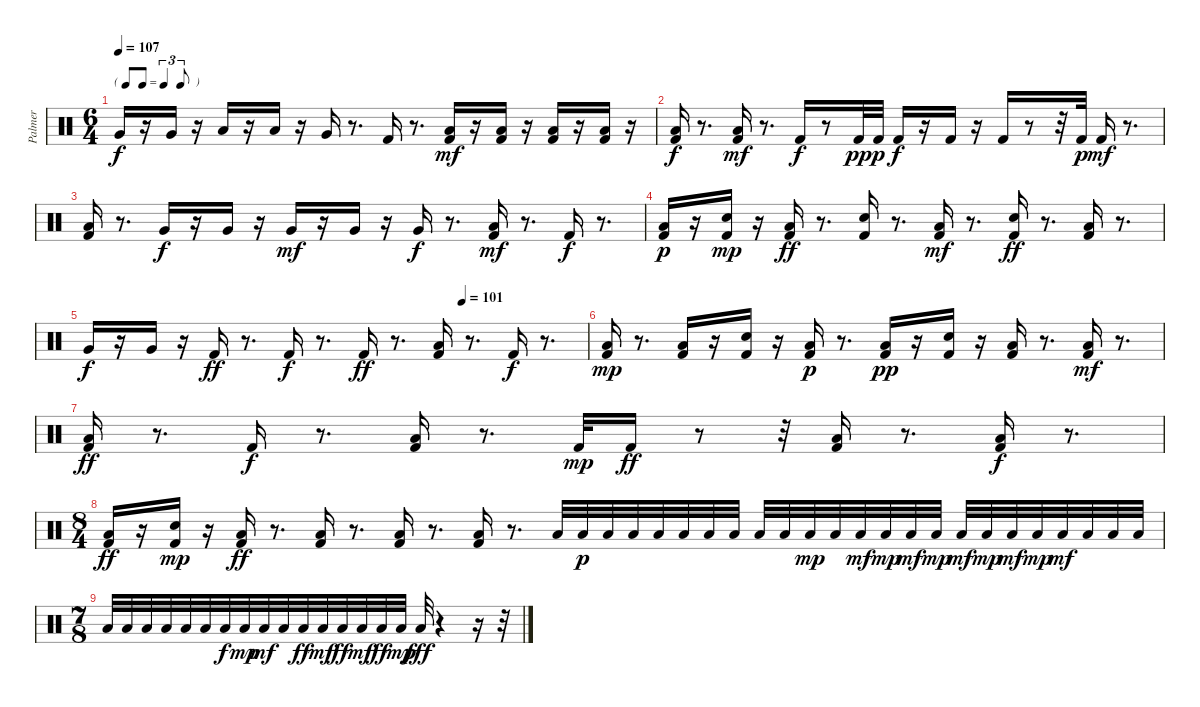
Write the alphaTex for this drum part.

\track ("Palmer" "Palmer") {instrument percussion}
\staff {score}
\articulation defaults
\ts (6 4)
\tf triplet8th
\tempo 107
\clef neutral
\ks c "Very Low Tom (hit)".16{dy f}
r.16 "Very Low Tom (hit)".16 r.16 "Low Floor Tom (hit)".16 r.16 "Low Floor Tom (hit)".16 r.16 "Very Low Tom (hit)".16 r.8{d} "Kick (hit) 2".16 r.8{d} ("Low Floor Tom (hit)" "Kick (hit) 2").16{dy mf} r.16 ("Low Floor Tom (hit)" "Kick (hit) 2").16 r.16 ("Low Floor Tom (hit)" "Kick (hit) 2").16 r.16 ("Low Floor Tom (hit)" "Kick (hit) 2").16 r.16 |
("Low Floor Tom (hit)" "Kick (hit) 2").16{dy f} r.8{d} ("Low Floor Tom (hit)" "Kick (hit) 2").16{dy mf} r.8{d} "Kick (hit) 2".16{dy f} r.8 "Kick (hit) 2".32{dy pp} "Kick (hit) 2".32{dy p} "Kick (hit) 2".16{dy f} r.16 "Kick (hit) 2".16 r.16 "Kick (hit) 2".16 r.8 r.32 "Kick (hit) 2".32{dy p} "Kick (hit) 2".16{dy mf} r.8{d} |
("Low Floor Tom (hit)" "Kick (hit) 2").16 r.8{d} "Very Low Tom (hit)".16{dy f} r.16 "Very Low Tom (hit)".16 r.16 "Very Low Tom (hit)".16{dy mf} r.16 "Very Low Tom (hit)".16 r.16 "Very Low Tom (hit)".16{dy f} r.8{d} ("Low Floor Tom (hit)" "Kick (hit) 2").16{dy mf} r.8{d} "Kick (hit) 2".16{dy f} r.8{d} |
("Low Floor Tom (hit)" "Kick (hit) 2").16{dy p} r.16 ("Electric Snare (hit)" "Kick (hit) 2").16{dy mp} r.16 ("Low Floor Tom (hit)" "Kick (hit) 2").16{dy ff} r.8{d} ("Electric Snare (hit)" "Kick (hit) 2").16 r.8{d} ("Low Floor Tom (hit)" "Kick (hit) 2").16{dy mf} r.8{d} ("Electric Snare (hit)" "Kick (hit) 2").16{dy ff} r.8{d} ("Low Floor Tom (hit)" "Kick (hit) 2").16 r.8{d} |
\tempo (101 0.75)
"Very Low Tom (hit)".16{dy f} r.16 "Very Low Tom (hit)".16 r.16 "Kick (hit) 2".16{dy ff} r.8{d} "Kick (hit) 2".16{dy f} r.8{d} "Kick (hit) 2".16{dy ff} r.8{d} ("Low Floor Tom (hit)" "Kick (hit) 2").16 r.8{d} "Kick (hit) 2".16{dy f} r.8{d} |
("Low Floor Tom (hit)" "Kick (hit) 2").16{dy mp} r.8{d} ("Low Floor Tom (hit)" "Kick (hit) 2").16 r.16 ("Electric Snare (hit)" "Kick (hit) 2").16 r.16 ("Low Floor Tom (hit)" "Kick (hit) 2").16{dy p} r.8{d} ("Low Floor Tom (hit)" "Kick (hit) 2").16{dy pp} r.16 ("Electric Snare (hit)" "Kick (hit) 2").16 r.16 ("Low Floor Tom (hit)" "Kick (hit) 2").16 r.8{d} ("Low Floor Tom (hit)" "Kick (hit) 2").16{dy mf} r.8{d} |
("Low Floor Tom (hit)" "Kick (hit) 2").16{dy ff} r.8{d} "Kick (hit) 2".16{dy f} r.8{d} ("Low Floor Tom (hit)" "Kick (hit) 2").16 r.8{d} "Kick (hit) 2".32{dy mp} "Kick (hit) 2".16{dy ff} r.8 r.32 ("Low Floor Tom (hit)" "Kick (hit) 2").16 r.8{d} ("Low Floor Tom (hit)" "Kick (hit) 2").16{dy f} r.8{d} |
\ts (8 4)
("Low Floor Tom (hit)" "Kick (hit) 2").16{dy ff} r.16 ("Electric Snare (hit)" "Kick (hit) 2").16{dy mp} r.16 ("Low Floor Tom (hit)" "Kick (hit) 2").16{dy ff} r.8{d} ("Low Floor Tom (hit)" "Kick (hit) 2").16 r.8{d} ("Low Floor Tom (hit)" "Kick (hit) 2").16 r.8{d} ("Low Floor Tom (hit)" "Kick (hit) 2").16 r.8{d} "Low Floor Tom (hit)".32 "Low Floor Tom (hit)".32{dy p} "Low Floor Tom (hit)".32 "Low Floor Tom (hit)".32 "Low Floor Tom (hit)".32 "Low Floor Tom (hit)".32 "Low Floor Tom (hit)".32 "Low Floor Tom (hit)".32 "Low Floor Tom (hit)".32 "Low Floor Tom (hit)".32 "Low Floor Tom (hit)".32{dy mp} "Low Floor Tom (hit)".32 "Low Floor Tom (hit)".32{dy mf} "Low Floor Tom (hit)".32{dy mp} "Low Floor Tom (hit)".32{dy mf} "Low Floor Tom (hit)".32{dy mp} "Low Floor Tom (hit)".32{dy mf} "Low Floor Tom (hit)".32{dy mp} "Low Floor Tom (hit)".32{dy mf} "Low Floor Tom (hit)".32{dy mp} "Low Floor Tom (hit)".32{dy mf} "Low Floor Tom (hit)".32 "Low Floor Tom (hit)".32 "Low Floor Tom (hit)".32 |
\ts (7 8)
"Low Floor Tom (hit)".32 "Low Floor Tom (hit)".32 "Low Floor Tom (hit)".32 "Low Floor Tom (hit)".32 "Low Floor Tom (hit)".32 "Low Floor Tom (hit)".32 "Low Floor Tom (hit)".32{dy f} "Low Floor Tom (hit)".32{dy mp} "Low Floor Tom (hit)".32{dy mf} "Low Floor Tom (hit)".32 "Low Floor Tom (hit)".32{dy ff} "Low Floor Tom (hit)".32{dy mf} "Low Floor Tom (hit)".32{dy ff} "Low Floor Tom (hit)".32{dy mf} "Low Floor Tom (hit)".32{dy ff} "Low Floor Tom (hit)".32{dy mp} "Low Floor Tom (hit)".32{dy fff} r.4 r.16 r.32
